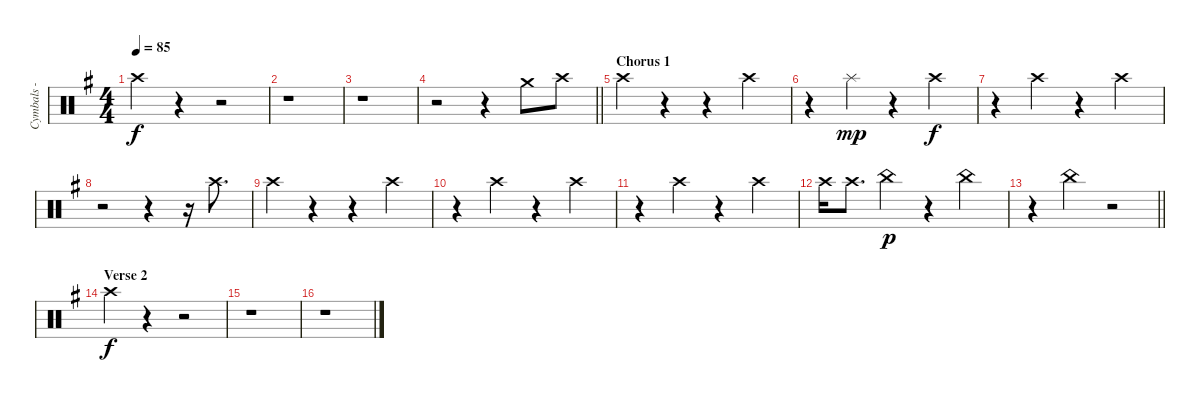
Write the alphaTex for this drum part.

\track ("Cymbals - crash" "Cymbals - ") {instrument percussion}
\staff {score}
\articulation defaults
\ts (4 4)
\tempo 85
\clef neutral
\ks g "Crash high (hit)".4{dy f}
r.4 r.2 |
r.1 |
r.1 |
\barLineRight lightlight
r.2 r.4 "Crash medium (hit)".8 "Crash high (hit)".8 |
\section ("" "Chorus 1")
"Crash high (hit)".4 r.4 r.4 "Crash high (hit)".4 |
r.4 "Splash (hit)".4{dy mp} r.4 "Crash high (hit)".4{dy f} |
r.4 "Crash high (hit)".4 r.4 "Crash high (hit)".4 |
r.2 r.4 r.16 "Crash high (hit)".8{d} |
"Crash high (hit)".4 r.4 r.4 "Crash high (hit)".4 |
r.4 "Crash high (hit)".4 r.4 "Crash high (hit)".4 |
r.4 "Crash high (hit)".4 r.4 "Crash high (hit)".4 |
"Crash high (hit)".16 "Crash high (hit)".8{d} "China (hit)".4{dy p} r.4 "China (hit)".4 |
\barLineRight lightlight
r.4{beam merge} "China (hit)".4 r.2 |
\section ("" "Verse 2")
"Crash high (hit)".4{dy f} r.4 r.2 |
r.1 |
r.1
